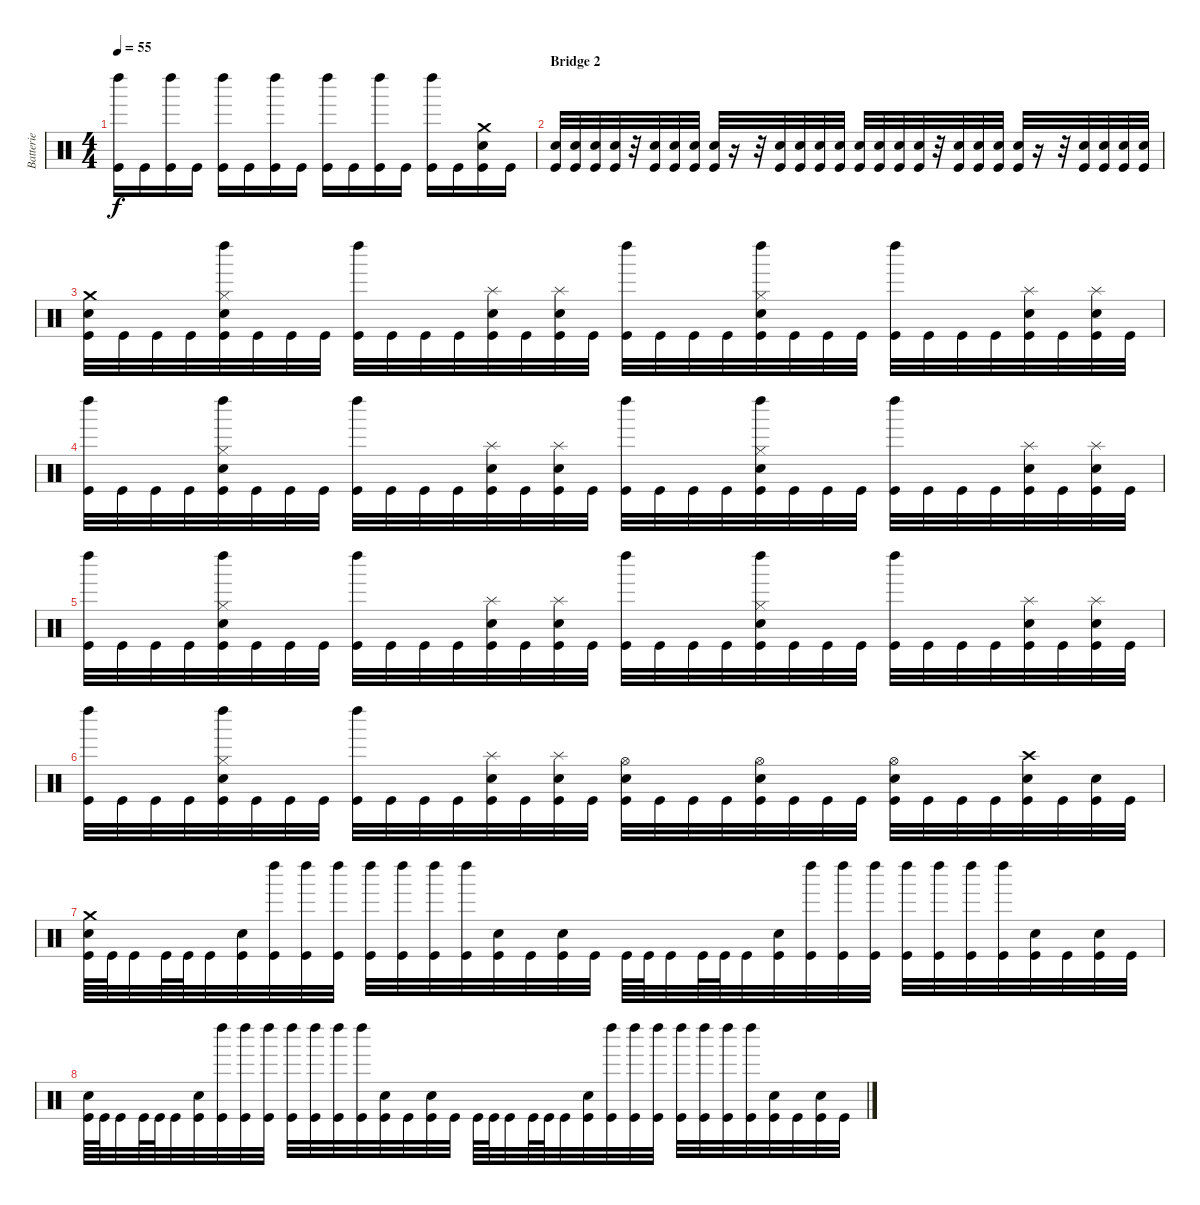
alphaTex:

\track ("Batterie" "Batterie") {instrument percussion}
\staff {score}
\articulation defaults
\ts (4 4)
\tempo 55
\clef neutral
\ks c
("Kick (hit)" "Left Maraca (hit)").16{dy f} "Kick (hit)".16 ("Kick (hit)" "Left Maraca (hit)").16 "Kick (hit)".16 ("Kick (hit)" "Left Maraca (hit)").16 "Kick (hit)".16 ("Kick (hit)" "Left Maraca (hit)").16 "Kick (hit)".16 ("Kick (hit)" "Left Maraca (hit)").16 "Kick (hit)".16 ("Kick (hit)" "Left Maraca (hit)").16 "Kick (hit)".16 ("Kick (hit)" "Left Maraca (hit)").16 "Kick (hit)".16 ("Kick (hit)" "Electric Snare (hit)" "Crash medium (hit)").16 "Kick (hit)".16 |
\section ("" "Bridge 2")
("Kick (hit)" "Electric Snare (hit)").32 ("Kick (hit)" "Electric Snare (hit)").32 ("Kick (hit)" "Electric Snare (hit)").32 ("Kick (hit)" "Electric Snare (hit)").32 r.32 ("Kick (hit)" "Electric Snare (hit)").32 ("Kick (hit)" "Electric Snare (hit)").32 ("Kick (hit)" "Electric Snare (hit)").32 ("Kick (hit)" "Electric Snare (hit)").32 r.16 r.32 ("Kick (hit)" "Electric Snare (hit)").32 ("Kick (hit)" "Electric Snare (hit)").32 ("Kick (hit)" "Electric Snare (hit)").32 ("Kick (hit)" "Electric Snare (hit)").32 ("Kick (hit)" "Electric Snare (hit)").32 ("Kick (hit)" "Electric Snare (hit)").32 ("Kick (hit)" "Electric Snare (hit)").32 ("Kick (hit)" "Electric Snare (hit)").32 r.32 ("Kick (hit)" "Electric Snare (hit)").32 ("Kick (hit)" "Electric Snare (hit)").32 ("Kick (hit)" "Electric Snare (hit)").32 ("Kick (hit)" "Electric Snare (hit)").32 r.16 r.32 ("Kick (hit)" "Electric Snare (hit)").32 ("Kick (hit)" "Electric Snare (hit)").32 ("Kick (hit)" "Electric Snare (hit)").32 ("Kick (hit)" "Electric Snare (hit)").32 |
("Kick (hit)" "Electric Snare (hit)" "Crash medium (hit)").32 "Kick (hit)".32 "Kick (hit)".32 "Kick (hit)".32 ("Kick (hit)" "Electric Snare (hit)" "Hi-Hat (closed)" "Left Maraca (hit)").32 "Kick (hit)".32 "Kick (hit)".32 "Kick (hit)".32 ("Kick (hit)" "Left Maraca (hit)").32 "Kick (hit)".32 "Kick (hit)".32 "Kick (hit)".32 ("Kick (hit)" "Electric Snare (hit)" "Splash (hit)").32 "Kick (hit)".32 ("Kick (hit)" "Electric Snare (hit)" "Splash (hit)").32 "Kick (hit)".32 ("Kick (hit)" "Left Maraca (hit)").32 "Kick (hit)".32 "Kick (hit)".32 "Kick (hit)".32 ("Kick (hit)" "Electric Snare (hit)" "Hi-Hat (closed)" "Left Maraca (hit)").32 "Kick (hit)".32 "Kick (hit)".32 "Kick (hit)".32 ("Kick (hit)" "Left Maraca (hit)").32 "Kick (hit)".32 "Kick (hit)".32 "Kick (hit)".32 ("Kick (hit)" "Electric Snare (hit)" "Splash (hit)").32 "Kick (hit)".32 ("Kick (hit)" "Electric Snare (hit)" "Splash (hit)").32 "Kick (hit)".32 |
("Kick (hit)" "Left Maraca (hit)").32 "Kick (hit)".32 "Kick (hit)".32 "Kick (hit)".32 ("Kick (hit)" "Electric Snare (hit)" "Hi-Hat (closed)" "Left Maraca (hit)").32 "Kick (hit)".32 "Kick (hit)".32 "Kick (hit)".32 ("Kick (hit)" "Left Maraca (hit)").32 "Kick (hit)".32 "Kick (hit)".32 "Kick (hit)".32 ("Kick (hit)" "Electric Snare (hit)" "Splash (hit)").32 "Kick (hit)".32 ("Kick (hit)" "Electric Snare (hit)" "Splash (hit)").32 "Kick (hit)".32 ("Kick (hit)" "Left Maraca (hit)").32 "Kick (hit)".32 "Kick (hit)".32 "Kick (hit)".32 ("Kick (hit)" "Electric Snare (hit)" "Hi-Hat (closed)" "Left Maraca (hit)").32 "Kick (hit)".32 "Kick (hit)".32 "Kick (hit)".32 ("Kick (hit)" "Left Maraca (hit)").32 "Kick (hit)".32 "Kick (hit)".32 "Kick (hit)".32 ("Kick (hit)" "Electric Snare (hit)" "Splash (hit)").32 "Kick (hit)".32 ("Kick (hit)" "Electric Snare (hit)" "Splash (hit)").32 "Kick (hit)".32 |
("Kick (hit)" "Left Maraca (hit)").32 "Kick (hit)".32 "Kick (hit)".32 "Kick (hit)".32 ("Kick (hit)" "Electric Snare (hit)" "Hi-Hat (closed)" "Left Maraca (hit)").32 "Kick (hit)".32 "Kick (hit)".32 "Kick (hit)".32 ("Kick (hit)" "Left Maraca (hit)").32 "Kick (hit)".32 "Kick (hit)".32 "Kick (hit)".32 ("Kick (hit)" "Electric Snare (hit)" "Splash (hit)").32 "Kick (hit)".32 ("Kick (hit)" "Electric Snare (hit)" "Splash (hit)").32 "Kick (hit)".32 ("Kick (hit)" "Left Maraca (hit)").32 "Kick (hit)".32 "Kick (hit)".32 "Kick (hit)".32 ("Kick (hit)" "Electric Snare (hit)" "Hi-Hat (closed)" "Left Maraca (hit)").32 "Kick (hit)".32 "Kick (hit)".32 "Kick (hit)".32 ("Kick (hit)" "Left Maraca (hit)").32 "Kick (hit)".32 "Kick (hit)".32 "Kick (hit)".32 ("Kick (hit)" "Electric Snare (hit)" "Splash (hit)").32 "Kick (hit)".32 ("Kick (hit)" "Electric Snare (hit)" "Splash (hit)").32 "Kick (hit)".32 |
("Kick (hit)" "Left Maraca (hit)").32 "Kick (hit)".32 "Kick (hit)".32 "Kick (hit)".32 ("Kick (hit)" "Electric Snare (hit)" "Hi-Hat (closed)" "Left Maraca (hit)").32 "Kick (hit)".32 "Kick (hit)".32 "Kick (hit)".32 ("Kick (hit)" "Left Maraca (hit)").32 "Kick (hit)".32 "Kick (hit)".32 "Kick (hit)".32 ("Kick (hit)" "Electric Snare (hit)" "Splash (hit)").32 "Kick (hit)".32 ("Kick (hit)" "Electric Snare (hit)" "Splash (hit)").32 "Kick (hit)".32 ("Kick (hit)" "Electric Snare (hit)" "Hi-Hat (open)").32 "Kick (hit)".32 "Kick (hit)".32 "Kick (hit)".32 ("Kick (hit)" "Electric Snare (hit)" "Hi-Hat (open)").32 "Kick (hit)".32 "Kick (hit)".32 "Kick (hit)".32 ("Kick (hit)" "Electric Snare (hit)" "Hi-Hat (open)").32 "Kick (hit)".32 "Kick (hit)".32 "Kick (hit)".32 ("Kick (hit)" "Electric Snare (hit)" "Crash high (hit)").32 "Kick (hit)".32 ("Kick (hit)" "Electric Snare (hit)").32 "Kick (hit)".32 |
("Kick (hit)" "Electric Snare (hit)" "Crash medium (hit)").64 "Kick (hit)".64 "Kick (hit)".32 "Kick (hit)".64 "Kick (hit)".64 "Kick (hit)".32 ("Kick (hit)" "Electric Snare (hit)").32 ("Kick (hit)" "Left Maraca (hit)").32 ("Kick (hit)" "Left Maraca (hit)").32 ("Kick (hit)" "Left Maraca (hit)").32 ("Kick (hit)" "Left Maraca (hit)").32 ("Kick (hit)" "Left Maraca (hit)").32 ("Kick (hit)" "Left Maraca (hit)").32 ("Kick (hit)" "Left Maraca (hit)").32 ("Kick (hit)" "Electric Snare (hit)").32 "Kick (hit)".32 ("Kick (hit)" "Electric Snare (hit)").32 "Kick (hit)".32 "Kick (hit)".64 "Kick (hit)".64 "Kick (hit)".32 "Kick (hit)".64 "Kick (hit)".64 "Kick (hit)".32 ("Kick (hit)" "Electric Snare (hit)").32 ("Kick (hit)" "Left Maraca (hit)").32 ("Kick (hit)" "Left Maraca (hit)").32 ("Kick (hit)" "Left Maraca (hit)").32 ("Kick (hit)" "Left Maraca (hit)").32 ("Kick (hit)" "Left Maraca (hit)").32 ("Kick (hit)" "Left Maraca (hit)").32 ("Kick (hit)" "Left Maraca (hit)").32 ("Kick (hit)" "Electric Snare (hit)").32 "Kick (hit)".32 ("Kick (hit)" "Electric Snare (hit)").32 "Kick (hit)".32 |
("Kick (hit)" "Electric Snare (hit)").64 "Kick (hit)".64 "Kick (hit)".32 "Kick (hit)".64 "Kick (hit)".64 "Kick (hit)".32 ("Kick (hit)" "Electric Snare (hit)").32 ("Kick (hit)" "Left Maraca (hit)").32 ("Kick (hit)" "Left Maraca (hit)").32 ("Kick (hit)" "Left Maraca (hit)").32 ("Kick (hit)" "Left Maraca (hit)").32 ("Kick (hit)" "Left Maraca (hit)").32 ("Kick (hit)" "Left Maraca (hit)").32 ("Kick (hit)" "Left Maraca (hit)").32 ("Kick (hit)" "Electric Snare (hit)").32 "Kick (hit)".32 ("Kick (hit)" "Electric Snare (hit)").32 "Kick (hit)".32 "Kick (hit)".64 "Kick (hit)".64 "Kick (hit)".32 "Kick (hit)".64 "Kick (hit)".64 "Kick (hit)".32 ("Kick (hit)" "Electric Snare (hit)").32 ("Kick (hit)" "Left Maraca (hit)").32 ("Kick (hit)" "Left Maraca (hit)").32 ("Kick (hit)" "Left Maraca (hit)").32 ("Kick (hit)" "Left Maraca (hit)").32 ("Kick (hit)" "Left Maraca (hit)").32 ("Kick (hit)" "Left Maraca (hit)").32 ("Kick (hit)" "Left Maraca (hit)").32 ("Kick (hit)" "Electric Snare (hit)").32 "Kick (hit)".32 ("Kick (hit)" "Electric Snare (hit)").32 "Kick (hit)".32
